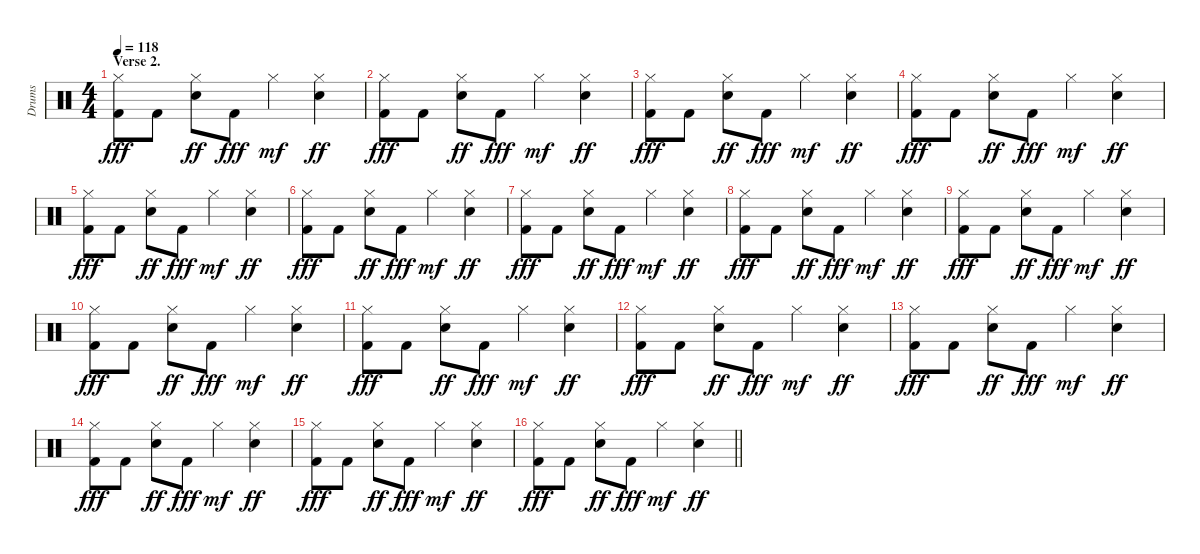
\track ("Drums" "Drums") {instrument percussion}
\staff {score}
\articulation defaults
\ts (4 4)
\section ("" "Verse 2.")
\tempo 118
\clef neutral
\ks c
("Hi-Hat (closed)" "Kick (hit) 2").8{dy fff} "Kick (hit) 2".8 ("Hi-Hat (closed)" "Snare (hit) 2").8{dy ff} "Kick (hit) 2".8{dy fff} "Hi-Hat (closed)".4{dy mf} ("Hi-Hat (closed)" "Snare (hit) 2").4{dy ff} |
("Hi-Hat (closed)" "Kick (hit) 2").8{dy fff} "Kick (hit) 2".8 ("Hi-Hat (closed)" "Snare (hit) 2").8{dy ff} "Kick (hit) 2".8{dy fff} "Hi-Hat (closed)".4{dy mf} ("Hi-Hat (closed)" "Snare (hit) 2").4{dy ff} |
("Hi-Hat (closed)" "Kick (hit) 2").8{dy fff} "Kick (hit) 2".8 ("Hi-Hat (closed)" "Snare (hit) 2").8{dy ff} "Kick (hit) 2".8{dy fff} "Hi-Hat (closed)".4{dy mf} ("Hi-Hat (closed)" "Snare (hit) 2").4{dy ff} |
("Hi-Hat (closed)" "Kick (hit) 2").8{dy fff} "Kick (hit) 2".8 ("Hi-Hat (closed)" "Snare (hit) 2").8{dy ff} "Kick (hit) 2".8{dy fff} "Hi-Hat (closed)".4{dy mf} ("Hi-Hat (closed)" "Snare (hit) 2").4{dy ff} |
("Hi-Hat (closed)" "Kick (hit) 2").8{dy fff} "Kick (hit) 2".8 ("Hi-Hat (closed)" "Snare (hit) 2").8{dy ff} "Kick (hit) 2".8{dy fff} "Hi-Hat (closed)".4{dy mf} ("Hi-Hat (closed)" "Snare (hit) 2").4{dy ff} |
("Hi-Hat (closed)" "Kick (hit) 2").8{dy fff} "Kick (hit) 2".8 ("Hi-Hat (closed)" "Snare (hit) 2").8{dy ff} "Kick (hit) 2".8{dy fff} "Hi-Hat (closed)".4{dy mf} ("Hi-Hat (closed)" "Snare (hit) 2").4{dy ff} |
("Hi-Hat (closed)" "Kick (hit) 2").8{dy fff} "Kick (hit) 2".8 ("Hi-Hat (closed)" "Snare (hit) 2").8{dy ff} "Kick (hit) 2".8{dy fff} "Hi-Hat (closed)".4{dy mf} ("Hi-Hat (closed)" "Snare (hit) 2").4{dy ff} |
("Hi-Hat (closed)" "Kick (hit) 2").8{dy fff} "Kick (hit) 2".8 ("Hi-Hat (closed)" "Snare (hit) 2").8{dy ff} "Kick (hit) 2".8{dy fff} "Hi-Hat (closed)".4{dy mf} ("Hi-Hat (closed)" "Snare (hit) 2").4{dy ff} |
("Hi-Hat (closed)" "Kick (hit) 2").8{dy fff} "Kick (hit) 2".8 ("Hi-Hat (closed)" "Snare (hit) 2").8{dy ff} "Kick (hit) 2".8{dy fff} "Hi-Hat (closed)".4{dy mf} ("Hi-Hat (closed)" "Snare (hit) 2").4{dy ff} |
("Hi-Hat (closed)" "Kick (hit) 2").8{dy fff} "Kick (hit) 2".8 ("Hi-Hat (closed)" "Snare (hit) 2").8{dy ff} "Kick (hit) 2".8{dy fff} "Hi-Hat (closed)".4{dy mf} ("Hi-Hat (closed)" "Snare (hit) 2").4{dy ff} |
("Hi-Hat (closed)" "Kick (hit) 2").8{dy fff} "Kick (hit) 2".8 ("Hi-Hat (closed)" "Snare (hit) 2").8{dy ff} "Kick (hit) 2".8{dy fff} "Hi-Hat (closed)".4{dy mf} ("Hi-Hat (closed)" "Snare (hit) 2").4{dy ff} |
("Hi-Hat (closed)" "Kick (hit) 2").8{dy fff} "Kick (hit) 2".8 ("Hi-Hat (closed)" "Snare (hit) 2").8{dy ff} "Kick (hit) 2".8{dy fff} "Hi-Hat (closed)".4{dy mf} ("Hi-Hat (closed)" "Snare (hit) 2").4{dy ff} |
("Hi-Hat (closed)" "Kick (hit) 2").8{dy fff} "Kick (hit) 2".8 ("Hi-Hat (closed)" "Snare (hit) 2").8{dy ff} "Kick (hit) 2".8{dy fff} "Hi-Hat (closed)".4{dy mf} ("Hi-Hat (closed)" "Snare (hit) 2").4{dy ff} |
("Hi-Hat (closed)" "Kick (hit) 2").8{dy fff} "Kick (hit) 2".8 ("Hi-Hat (closed)" "Snare (hit) 2").8{dy ff} "Kick (hit) 2".8{dy fff} "Hi-Hat (closed)".4{dy mf} ("Hi-Hat (closed)" "Snare (hit) 2").4{dy ff} |
("Hi-Hat (closed)" "Kick (hit) 2").8{dy fff} "Kick (hit) 2".8 ("Hi-Hat (closed)" "Snare (hit) 2").8{dy ff} "Kick (hit) 2".8{dy fff} "Hi-Hat (closed)".4{dy mf} ("Hi-Hat (closed)" "Snare (hit) 2").4{dy ff} |
\barLineRight lightlight
("Hi-Hat (closed)" "Kick (hit) 2").8{dy fff} "Kick (hit) 2".8 ("Hi-Hat (closed)" "Snare (hit) 2").8{dy ff} "Kick (hit) 2".8{dy fff} "Hi-Hat (closed)".4{dy mf} ("Hi-Hat (closed)" "Snare (hit) 2").4{dy ff}
